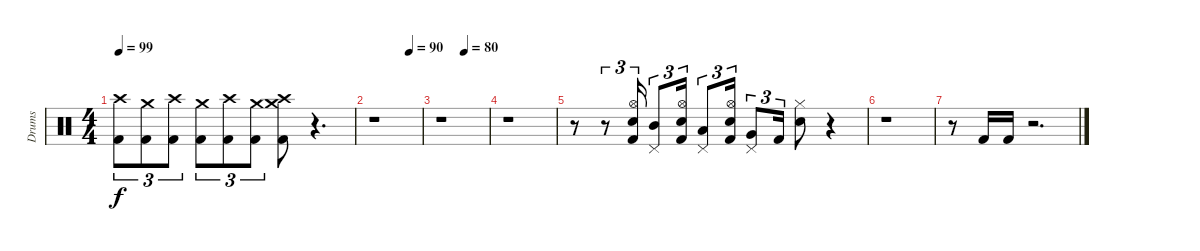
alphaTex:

\track ("Drums" "Drums") {instrument percussion}
\staff {score}
\articulation defaults
\ts (4 4)
\tempo 99
\clef neutral
\ks c
("Crash high (hit)" "Kick (hit) 2").8{tu (3 2) dy f} ("Crash medium (hit)" "Kick (hit) 2").8{tu (3 2)} ("Crash high (hit)" "Kick (hit) 2").8{tu (3 2)} ("Crash medium (hit)" "Kick (hit) 2").8{tu (3 2)} ("Crash high (hit)" "Kick (hit) 2").8{tu (3 2)} ("Crash medium (hit)" "Kick (hit) 2").8{tu (3 2)} ("Crash high (hit)" "Crash medium (hit)" "Kick (hit) 2").8 r.4{d} |
\tempo (90 0.75)
r.1 |
\tempo (80 0.5)
r.1 |
r.1 |
r.8 r.8{tu (3 2)} ("Hi-Hat (open)" "Snare (hit) 2" "Kick (hit) 2").16{tu (3 2)} ("Pedal Hi-Hat (hit)" "Mid Tom (hit)").8{tu (3 2)} ("Hi-Hat (open)" "Snare (hit) 2" "Kick (hit) 2").16{tu (3 2)} ("Pedal Hi-Hat (hit)" "Low Tom (hit)").8{tu (3 2)} ("Hi-Hat (open)" "Snare (hit) 2" "Kick (hit) 2").16{tu (3 2)} ("Pedal Hi-Hat (hit)" "Very Low Tom (hit)").8{tu (3 2)} "Kick (hit) 2".16{tu (3 2)} ("Hi-Hat (closed)" "Snare (hit) 2").8 r.4 |
r.1 |
r.8 "Kick (hit) 2".16 "Kick (hit) 2".16 r.2{d}
